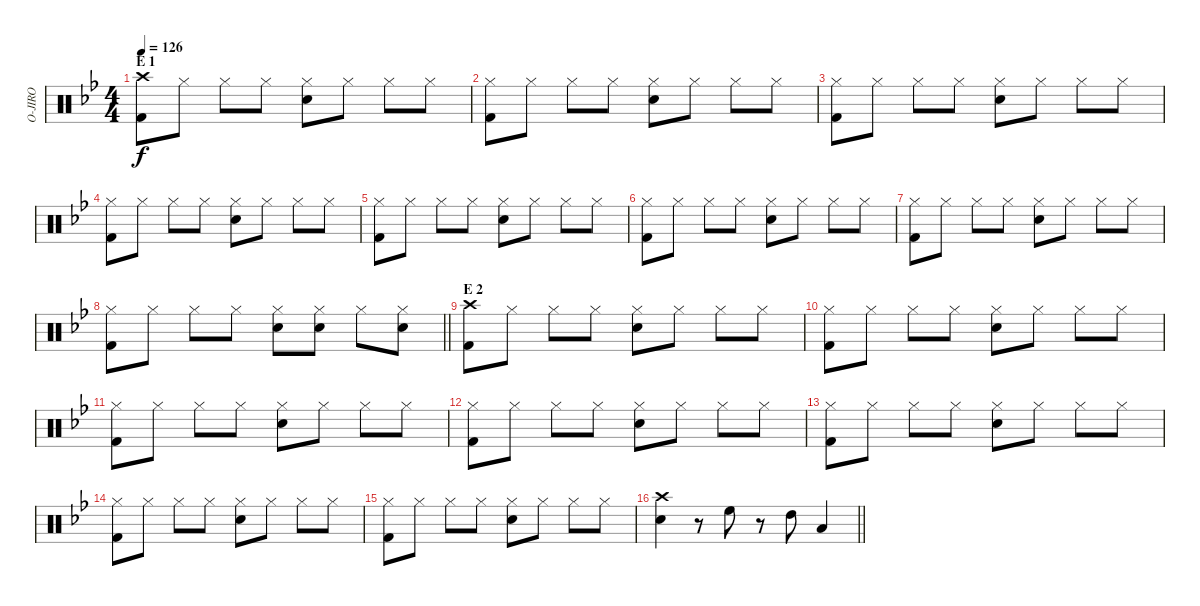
\track ("O-JIRO" "O-JIRO") {instrument percussion}
\staff {score}
\articulation defaults
\ts (4 4)
\section ("" "E 1")
\tempo 126
\clef neutral
\ks bb
("Crash high (hit)" "Kick (hit) 2").8{dy f} "Hi-Hat (closed)".8 "Hi-Hat (closed)".8 "Hi-Hat (closed)".8 ("Hi-Hat (closed)" "Snare (hit) 2").8 "Hi-Hat (closed)".8 "Hi-Hat (closed)".8 "Hi-Hat (closed)".8 |
("Hi-Hat (closed)" "Kick (hit) 2").8 "Hi-Hat (closed)".8 "Hi-Hat (closed)".8 "Hi-Hat (closed)".8 ("Hi-Hat (closed)" "Snare (hit) 2").8 "Hi-Hat (closed)".8 "Hi-Hat (closed)".8 "Hi-Hat (closed)".8 |
("Hi-Hat (closed)" "Kick (hit) 2").8 "Hi-Hat (closed)".8 "Hi-Hat (closed)".8 "Hi-Hat (closed)".8 ("Hi-Hat (closed)" "Snare (hit) 2").8 "Hi-Hat (closed)".8 "Hi-Hat (closed)".8 "Hi-Hat (closed)".8 |
("Hi-Hat (closed)" "Kick (hit) 2").8 "Hi-Hat (closed)".8 "Hi-Hat (closed)".8 "Hi-Hat (closed)".8 ("Hi-Hat (closed)" "Snare (hit) 2").8 "Hi-Hat (closed)".8 "Hi-Hat (closed)".8 "Hi-Hat (closed)".8 |
("Hi-Hat (closed)" "Kick (hit) 2").8 "Hi-Hat (closed)".8 "Hi-Hat (closed)".8 "Hi-Hat (closed)".8 ("Hi-Hat (closed)" "Snare (hit) 2").8 "Hi-Hat (closed)".8 "Hi-Hat (closed)".8 "Hi-Hat (closed)".8 |
("Hi-Hat (closed)" "Kick (hit) 2").8 "Hi-Hat (closed)".8 "Hi-Hat (closed)".8 "Hi-Hat (closed)".8 ("Hi-Hat (closed)" "Snare (hit) 2").8 "Hi-Hat (closed)".8 "Hi-Hat (closed)".8 "Hi-Hat (closed)".8 |
("Hi-Hat (closed)" "Kick (hit) 2").8 "Hi-Hat (closed)".8 "Hi-Hat (closed)".8 "Hi-Hat (closed)".8 ("Hi-Hat (closed)" "Snare (hit) 2").8 "Hi-Hat (closed)".8 "Hi-Hat (closed)".8 "Hi-Hat (closed)".8 |
\barLineRight lightlight
("Hi-Hat (closed)" "Kick (hit) 2").8 "Hi-Hat (closed)".8 "Hi-Hat (closed)".8 "Hi-Hat (closed)".8 ("Hi-Hat (closed)" "Snare (hit) 2").8 ("Hi-Hat (closed)" "Snare (hit) 2").8 "Hi-Hat (closed)".8 ("Hi-Hat (closed)" "Snare (hit) 2").8 |
\section ("" "E 2")
("Crash high (hit)" "Kick (hit) 2").8 "Hi-Hat (closed)".8 "Hi-Hat (closed)".8 "Hi-Hat (closed)".8 ("Hi-Hat (closed)" "Snare (hit) 2").8 "Hi-Hat (closed)".8 "Hi-Hat (closed)".8 "Hi-Hat (closed)".8 |
("Hi-Hat (closed)" "Kick (hit) 2").8 "Hi-Hat (closed)".8 "Hi-Hat (closed)".8 "Hi-Hat (closed)".8 ("Hi-Hat (closed)" "Snare (hit) 2").8 "Hi-Hat (closed)".8 "Hi-Hat (closed)".8 "Hi-Hat (closed)".8 |
("Hi-Hat (closed)" "Kick (hit) 2").8 "Hi-Hat (closed)".8 "Hi-Hat (closed)".8 "Hi-Hat (closed)".8 ("Hi-Hat (closed)" "Snare (hit) 2").8 "Hi-Hat (closed)".8 "Hi-Hat (closed)".8 "Hi-Hat (closed)".8 |
("Hi-Hat (closed)" "Kick (hit) 2").8 "Hi-Hat (closed)".8 "Hi-Hat (closed)".8 "Hi-Hat (closed)".8 ("Hi-Hat (closed)" "Snare (hit) 2").8 "Hi-Hat (closed)".8 "Hi-Hat (closed)".8 "Hi-Hat (closed)".8 |
("Hi-Hat (closed)" "Kick (hit) 2").8 "Hi-Hat (closed)".8 "Hi-Hat (closed)".8 "Hi-Hat (closed)".8 ("Hi-Hat (closed)" "Snare (hit) 2").8 "Hi-Hat (closed)".8 "Hi-Hat (closed)".8 "Hi-Hat (closed)".8 |
("Hi-Hat (closed)" "Kick (hit) 2").8 "Hi-Hat (closed)".8 "Hi-Hat (closed)".8 "Hi-Hat (closed)".8 ("Hi-Hat (closed)" "Snare (hit) 2").8 "Hi-Hat (closed)".8 "Hi-Hat (closed)".8 "Hi-Hat (closed)".8 |
("Hi-Hat (closed)" "Kick (hit) 2").8 "Hi-Hat (closed)".8 "Hi-Hat (closed)".8 "Hi-Hat (closed)".8 ("Hi-Hat (closed)" "Snare (hit) 2").8 "Hi-Hat (closed)".8 "Hi-Hat (closed)".8 "Hi-Hat (closed)".8 |
\barLineRight lightlight
("Crash high (hit)" "Snare (hit) 2").4 r.8 "High Floor Tom (hit)".8 r.8 "High Tom (hit)".8 "Low Tom (hit)".4
